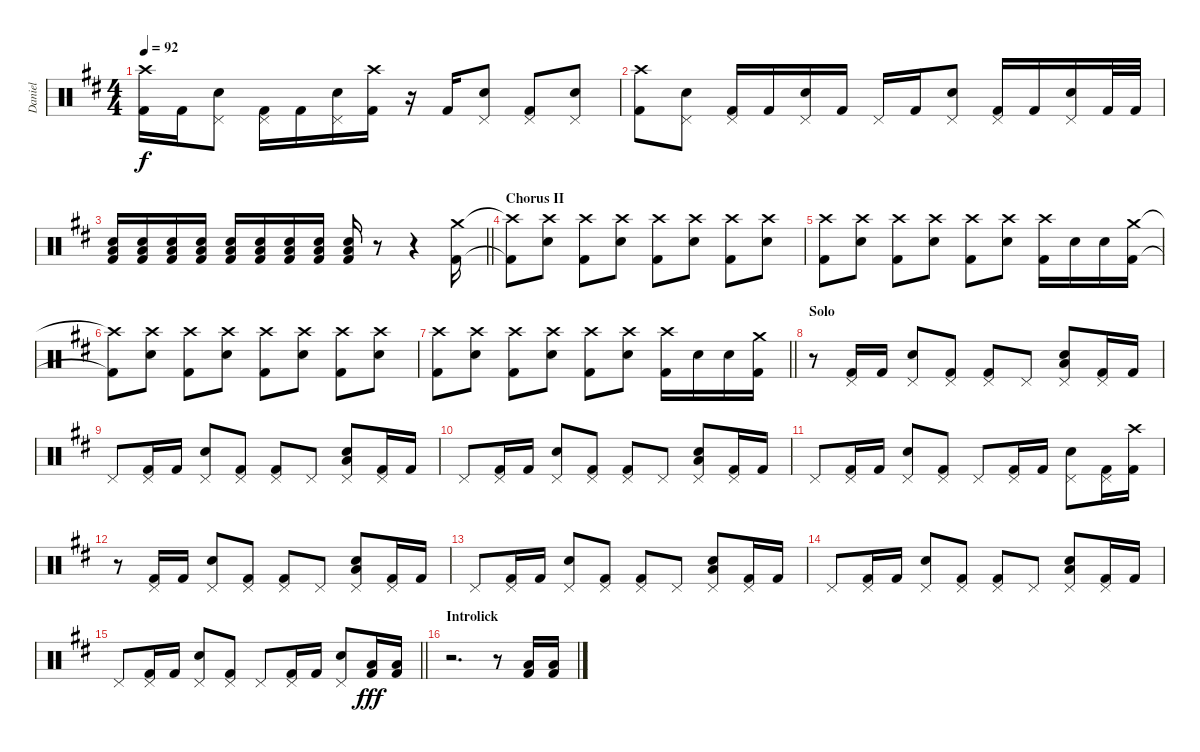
\track ("Daniel" "Daniel") {instrument percussion}
\staff {score}
\articulation defaults
\ts (4 4)
\tempo 92
\clef neutral
\ks bminor
("Crash high (hit)" "Kick (hit) 2").16{dy f} "Kick (hit) 2".16 ("Pedal Hi-Hat (hit)" "Electric Snare (hit)").8 ("Pedal Hi-Hat (hit)" "Kick (hit) 2").16 "Kick (hit) 2".16 ("Pedal Hi-Hat (hit)" "Electric Snare (hit)").16 ("Crash high (hit)" "Kick (hit) 2").16 r.16 "Kick (hit) 2".16 ("Pedal Hi-Hat (hit)" "Electric Snare (hit)").8 ("Pedal Hi-Hat (hit)" "Kick (hit) 2").8 ("Pedal Hi-Hat (hit)" "Electric Snare (hit)").8 |
("Crash high (hit)" "Kick (hit) 2").8 ("Pedal Hi-Hat (hit)" "Electric Snare (hit)").8 ("Pedal Hi-Hat (hit)" "Kick (hit) 2").16 "Kick (hit) 2".16 ("Pedal Hi-Hat (hit)" "Electric Snare (hit)").16 "Kick (hit) 2".16 "Pedal Hi-Hat (hit)".16 "Kick (hit) 2".16 ("Pedal Hi-Hat (hit)" "Electric Snare (hit)").8 ("Pedal Hi-Hat (hit)" "Kick (hit) 2").16 "Kick (hit) 2".16 ("Pedal Hi-Hat (hit)" "Electric Snare (hit)").16 "Kick (hit) 2".32 "Kick (hit) 2".32 |
\barLineRight lightlight
("Electric Snare (hit)" "Low Floor Tom (hit)" "Kick (hit) 2").16 ("Electric Snare (hit)" "Low Floor Tom (hit)" "Kick (hit) 2").16 ("Electric Snare (hit)" "Low Floor Tom (hit)" "Kick (hit) 2").16 ("Electric Snare (hit)" "Low Floor Tom (hit)" "Kick (hit) 2").16 ("Electric Snare (hit)" "Low Floor Tom (hit)" "Kick (hit) 2").16 ("Electric Snare (hit)" "Low Floor Tom (hit)" "Kick (hit) 2").16 ("Electric Snare (hit)" "Low Floor Tom (hit)" "Kick (hit) 2").16 ("Electric Snare (hit)" "Low Floor Tom (hit)" "Kick (hit) 2").16 ("Electric Snare (hit)" "Low Floor Tom (hit)" "Kick (hit) 2").16 r.8 r.4 ("Crash medium (hit)" "Kick (hit) 2").16 |
\section ("" "Chorus II")
("Crash high (hit)"{t} "Kick (hit) 2"{t}).8 ("Crash high (hit)" "Electric Snare (hit)").8 ("Crash high (hit)" "Kick (hit) 2").8 ("Crash high (hit)" "Electric Snare (hit)").8 ("Crash high (hit)" "Kick (hit) 2").8 ("Crash high (hit)" "Electric Snare (hit)").8 ("Crash high (hit)" "Kick (hit) 2").8 ("Crash high (hit)" "Electric Snare (hit)").8 |
("Crash high (hit)" "Kick (hit) 2").8 ("Crash high (hit)" "Electric Snare (hit)").8 ("Crash high (hit)" "Kick (hit) 2").8 ("Crash high (hit)" "Electric Snare (hit)").8 ("Crash high (hit)" "Kick (hit) 2").8 ("Crash high (hit)" "Electric Snare (hit)").8 ("Crash high (hit)" "Kick (hit) 2").16 "Electric Snare (hit)".16 "Electric Snare (hit)".16 ("Crash medium (hit)" "Kick (hit) 2").16 |
("Crash high (hit)"{t} "Kick (hit) 2"{t}).8 ("Crash high (hit)" "Electric Snare (hit)").8 ("Crash high (hit)" "Kick (hit) 2").8 ("Crash high (hit)" "Electric Snare (hit)").8 ("Crash high (hit)" "Kick (hit) 2").8 ("Crash high (hit)" "Electric Snare (hit)").8 ("Crash high (hit)" "Kick (hit) 2").8 ("Crash high (hit)" "Electric Snare (hit)").8 |
\barLineRight lightlight
("Crash high (hit)" "Kick (hit) 2").8 ("Crash high (hit)" "Electric Snare (hit)").8 ("Crash high (hit)" "Kick (hit) 2").8 ("Crash high (hit)" "Electric Snare (hit)").8 ("Crash high (hit)" "Kick (hit) 2").8 ("Crash high (hit)" "Electric Snare (hit)").8 ("Crash high (hit)" "Kick (hit) 2").16 "Electric Snare (hit)".16 "Electric Snare (hit)".16 ("Crash medium (hit)" "Kick (hit) 2").16 |
\section ("" "Solo")
r.8 ("Pedal Hi-Hat (hit)" "Kick (hit) 2").16 "Kick (hit) 2".16 ("Pedal Hi-Hat (hit)" "Electric Snare (hit)").8 ("Pedal Hi-Hat (hit)" "Kick (hit) 2").8 ("Pedal Hi-Hat (hit)" "Kick (hit) 2").8 "Pedal Hi-Hat (hit)".8 ("Pedal Hi-Hat (hit)" "Electric Snare (hit)" "Low Floor Tom (hit)").8 ("Pedal Hi-Hat (hit)" "Kick (hit) 2").16 "Kick (hit) 2".16 |
"Pedal Hi-Hat (hit)".8 ("Pedal Hi-Hat (hit)" "Kick (hit) 2").16 "Kick (hit) 2".16 ("Pedal Hi-Hat (hit)" "Electric Snare (hit)").8 ("Pedal Hi-Hat (hit)" "Kick (hit) 2").8 ("Pedal Hi-Hat (hit)" "Kick (hit) 2").8 "Pedal Hi-Hat (hit)".8 ("Pedal Hi-Hat (hit)" "Electric Snare (hit)" "Low Floor Tom (hit)").8 ("Pedal Hi-Hat (hit)" "Kick (hit) 2").16 "Kick (hit) 2".16 |
"Pedal Hi-Hat (hit)".8 ("Pedal Hi-Hat (hit)" "Kick (hit) 2").16 "Kick (hit) 2".16 ("Pedal Hi-Hat (hit)" "Electric Snare (hit)").8 ("Pedal Hi-Hat (hit)" "Kick (hit) 2").8 ("Pedal Hi-Hat (hit)" "Kick (hit) 2").8 "Pedal Hi-Hat (hit)".8 ("Pedal Hi-Hat (hit)" "Electric Snare (hit)" "Low Floor Tom (hit)").8 ("Pedal Hi-Hat (hit)" "Kick (hit) 2").16 "Kick (hit) 2".16 |
"Pedal Hi-Hat (hit)".8 ("Pedal Hi-Hat (hit)" "Kick (hit) 2").16 "Kick (hit) 2".16 ("Pedal Hi-Hat (hit)" "Electric Snare (hit)").8 ("Pedal Hi-Hat (hit)" "Kick (hit) 2").8 "Pedal Hi-Hat (hit)".8 ("Pedal Hi-Hat (hit)" "Kick (hit) 2").16 "Kick (hit) 2".16 ("Pedal Hi-Hat (hit)" "Electric Snare (hit)").8 ("Pedal Hi-Hat (hit)" "Kick (hit) 2").16 ("Crash high (hit)" "Kick (hit) 2").16 |
r.8 ("Pedal Hi-Hat (hit)" "Kick (hit) 2").16 "Kick (hit) 2".16 ("Pedal Hi-Hat (hit)" "Electric Snare (hit)").8 ("Pedal Hi-Hat (hit)" "Kick (hit) 2").8 ("Pedal Hi-Hat (hit)" "Kick (hit) 2").8 "Pedal Hi-Hat (hit)".8 ("Pedal Hi-Hat (hit)" "Electric Snare (hit)" "Low Floor Tom (hit)").8 ("Pedal Hi-Hat (hit)" "Kick (hit) 2").16 "Kick (hit) 2".16 |
"Pedal Hi-Hat (hit)".8 ("Pedal Hi-Hat (hit)" "Kick (hit) 2").16 "Kick (hit) 2".16 ("Pedal Hi-Hat (hit)" "Electric Snare (hit)").8 ("Pedal Hi-Hat (hit)" "Kick (hit) 2").8 ("Pedal Hi-Hat (hit)" "Kick (hit) 2").8 "Pedal Hi-Hat (hit)".8 ("Pedal Hi-Hat (hit)" "Electric Snare (hit)" "Low Floor Tom (hit)").8 ("Pedal Hi-Hat (hit)" "Kick (hit) 2").16 "Kick (hit) 2".16 |
"Pedal Hi-Hat (hit)".8 ("Pedal Hi-Hat (hit)" "Kick (hit) 2").16 "Kick (hit) 2".16 ("Pedal Hi-Hat (hit)" "Electric Snare (hit)").8 ("Pedal Hi-Hat (hit)" "Kick (hit) 2").8 ("Pedal Hi-Hat (hit)" "Kick (hit) 2").8 "Pedal Hi-Hat (hit)".8 ("Pedal Hi-Hat (hit)" "Electric Snare (hit)" "Low Floor Tom (hit)").8 ("Pedal Hi-Hat (hit)" "Kick (hit) 2").16 "Kick (hit) 2".16 |
\barLineRight lightlight "Pedal Hi-Hat (hit)".8
("Pedal Hi-Hat (hit)" "Kick (hit) 2").16 "Kick (hit) 2".16 ("Pedal Hi-Hat (hit)" "Electric Snare (hit)").8 ("Pedal Hi-Hat (hit)" "Kick (hit) 2").8 "Pedal Hi-Hat (hit)".8 ("Pedal Hi-Hat (hit)" "Kick (hit) 2").16 "Kick (hit) 2".16 ("Pedal Hi-Hat (hit)" "Electric Snare (hit)").8 ("Low Floor Tom (hit)" "Kick (hit) 2").16{dy fff} ("Low Floor Tom (hit)" "Kick (hit) 2").16 |
\section ("" "Introlick")
r.2{d} r.8 ("Low Floor Tom (hit)" "Kick (hit) 2").16 ("Low Floor Tom (hit)" "Kick (hit) 2").16
